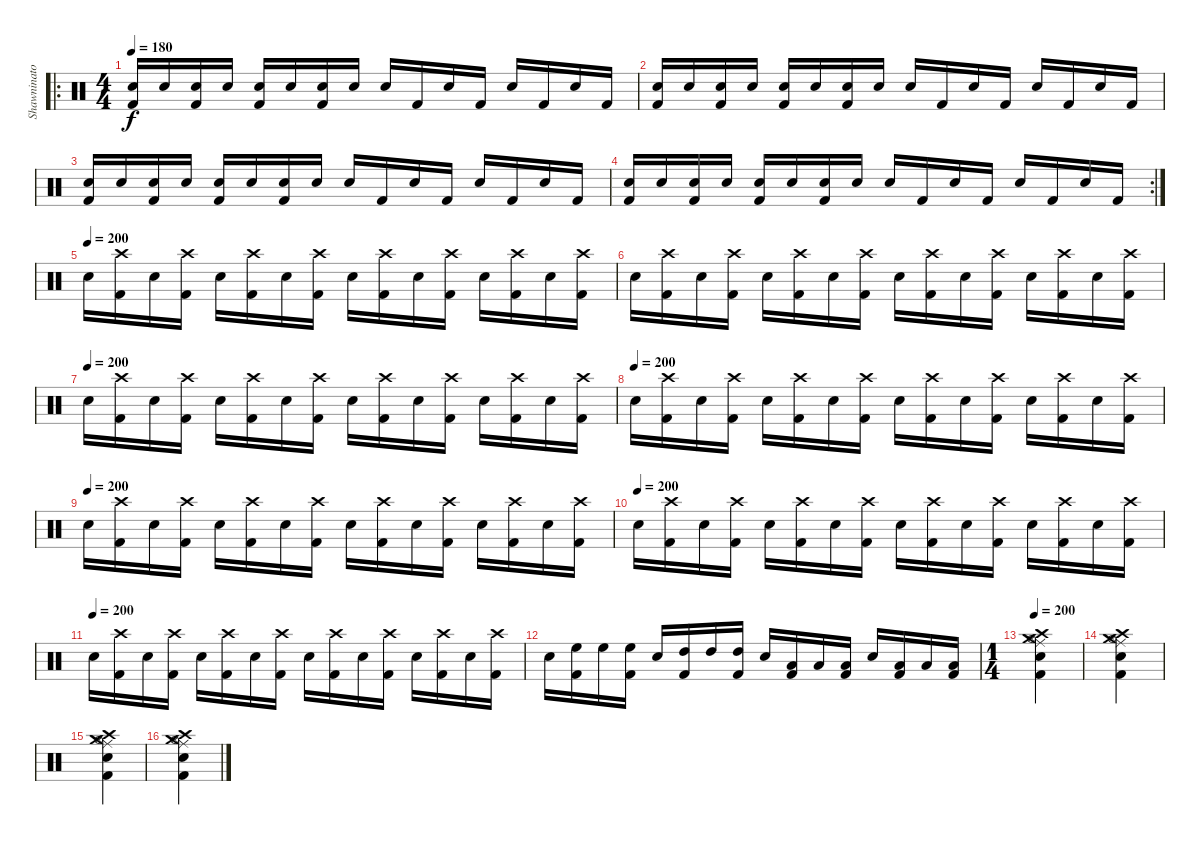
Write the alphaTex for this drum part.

\track ("Shawninator-Drums" "Shawninato") {instrument percussion}
\staff {score}
\articulation defaults
\ro
\ts (4 4)
\tempo 180
\clef neutral
\ks c
("Kick (hit) 2" "Snare (hit) 2").16{dy f} "Snare (hit) 2".16 ("Kick (hit) 2" "Snare (hit) 2").16 "Snare (hit) 2".16 ("Kick (hit) 2" "Snare (hit) 2").16 "Snare (hit) 2".16 ("Kick (hit) 2" "Snare (hit) 2").16 "Snare (hit) 2".16 "Snare (hit) 2".16 "Kick (hit) 2".16 "Snare (hit) 2".16 "Kick (hit) 2".16 "Snare (hit) 2".16 "Kick (hit) 2".16 "Snare (hit) 2".16 "Kick (hit) 2".16 |
("Kick (hit) 2" "Snare (hit) 2").16 "Snare (hit) 2".16 ("Kick (hit) 2" "Snare (hit) 2").16 "Snare (hit) 2".16 ("Kick (hit) 2" "Snare (hit) 2").16 "Snare (hit) 2".16 ("Kick (hit) 2" "Snare (hit) 2").16 "Snare (hit) 2".16 "Snare (hit) 2".16 "Kick (hit) 2".16 "Snare (hit) 2".16 "Kick (hit) 2".16 "Snare (hit) 2".16 "Kick (hit) 2".16 "Snare (hit) 2".16 "Kick (hit) 2".16 |
("Kick (hit) 2" "Snare (hit) 2").16 "Snare (hit) 2".16 ("Kick (hit) 2" "Snare (hit) 2").16 "Snare (hit) 2".16 ("Kick (hit) 2" "Snare (hit) 2").16 "Snare (hit) 2".16 ("Kick (hit) 2" "Snare (hit) 2").16 "Snare (hit) 2".16 "Snare (hit) 2".16 "Kick (hit) 2".16 "Snare (hit) 2".16 "Kick (hit) 2".16 "Snare (hit) 2".16 "Kick (hit) 2".16 "Snare (hit) 2".16 "Kick (hit) 2".16 |
\rc 2
("Kick (hit) 2" "Snare (hit) 2").16 "Snare (hit) 2".16 ("Kick (hit) 2" "Snare (hit) 2").16 "Snare (hit) 2".16 ("Kick (hit) 2" "Snare (hit) 2").16 "Snare (hit) 2".16 ("Kick (hit) 2" "Snare (hit) 2").16 "Snare (hit) 2".16 "Snare (hit) 2".16 "Kick (hit) 2".16 "Snare (hit) 2".16 "Kick (hit) 2".16 "Snare (hit) 2".16 "Kick (hit) 2".16 "Snare (hit) 2".16 "Kick (hit) 2".16 |
\tempo (200)
"Snare (hit) 2".16 ("Crash high (hit)" "Kick (hit) 2").16 "Snare (hit) 2".16 ("Crash high (hit)" "Kick (hit) 2").16 "Snare (hit) 2".16 ("Crash high (hit)" "Kick (hit) 2").16 "Snare (hit) 2".16 ("Crash high (hit)" "Kick (hit) 2").16 "Snare (hit) 2".16 ("Crash high (hit)" "Kick (hit) 2").16 "Snare (hit) 2".16 ("Crash high (hit)" "Kick (hit) 2").16 "Snare (hit) 2".16 ("Crash high (hit)" "Kick (hit) 2").16 "Snare (hit) 2".16 ("Crash high (hit)" "Kick (hit) 2").16 |
"Snare (hit) 2".16 ("Crash high (hit)" "Kick (hit) 2").16 "Snare (hit) 2".16 ("Crash high (hit)" "Kick (hit) 2").16 "Snare (hit) 2".16 ("Crash high (hit)" "Kick (hit) 2").16 "Snare (hit) 2".16 ("Crash high (hit)" "Kick (hit) 2").16 "Snare (hit) 2".16 ("Crash high (hit)" "Kick (hit) 2").16 "Snare (hit) 2".16 ("Crash high (hit)" "Kick (hit) 2").16 "Snare (hit) 2".16 ("Crash high (hit)" "Kick (hit) 2").16 "Snare (hit) 2".16 ("Crash high (hit)" "Kick (hit) 2").16 |
\tempo (200)
"Snare (hit) 2".16 ("Crash high (hit)" "Kick (hit) 2").16 "Snare (hit) 2".16 ("Crash high (hit)" "Kick (hit) 2").16 "Snare (hit) 2".16 ("Crash high (hit)" "Kick (hit) 2").16 "Snare (hit) 2".16 ("Crash high (hit)" "Kick (hit) 2").16 "Snare (hit) 2".16 ("Crash high (hit)" "Kick (hit) 2").16 "Snare (hit) 2".16 ("Crash high (hit)" "Kick (hit) 2").16 "Snare (hit) 2".16 ("Crash high (hit)" "Kick (hit) 2").16 "Snare (hit) 2".16 ("Crash high (hit)" "Kick (hit) 2").16 |
\tempo (200)
"Snare (hit) 2".16 ("Crash high (hit)" "Kick (hit) 2").16 "Snare (hit) 2".16 ("Crash high (hit)" "Kick (hit) 2").16 "Snare (hit) 2".16 ("Crash high (hit)" "Kick (hit) 2").16 "Snare (hit) 2".16 ("Crash high (hit)" "Kick (hit) 2").16 "Snare (hit) 2".16 ("Crash high (hit)" "Kick (hit) 2").16 "Snare (hit) 2".16 ("Crash high (hit)" "Kick (hit) 2").16 "Snare (hit) 2".16 ("Crash high (hit)" "Kick (hit) 2").16 "Snare (hit) 2".16 ("Crash high (hit)" "Kick (hit) 2").16 |
\tempo (200)
"Snare (hit) 2".16 ("Crash high (hit)" "Kick (hit) 2").16 "Snare (hit) 2".16 ("Crash high (hit)" "Kick (hit) 2").16 "Snare (hit) 2".16 ("Crash high (hit)" "Kick (hit) 2").16 "Snare (hit) 2".16 ("Crash high (hit)" "Kick (hit) 2").16 "Snare (hit) 2".16 ("Crash high (hit)" "Kick (hit) 2").16 "Snare (hit) 2".16 ("Crash high (hit)" "Kick (hit) 2").16 "Snare (hit) 2".16 ("Crash high (hit)" "Kick (hit) 2").16 "Snare (hit) 2".16 ("Crash high (hit)" "Kick (hit) 2").16 |
\tempo (200)
"Snare (hit) 2".16 ("Crash high (hit)" "Kick (hit) 2").16 "Snare (hit) 2".16 ("Crash high (hit)" "Kick (hit) 2").16 "Snare (hit) 2".16 ("Crash high (hit)" "Kick (hit) 2").16 "Snare (hit) 2".16 ("Crash high (hit)" "Kick (hit) 2").16 "Snare (hit) 2".16 ("Crash high (hit)" "Kick (hit) 2").16 "Snare (hit) 2".16 ("Crash high (hit)" "Kick (hit) 2").16 "Snare (hit) 2".16 ("Crash high (hit)" "Kick (hit) 2").16 "Snare (hit) 2".16 ("Crash high (hit)" "Kick (hit) 2").16 |
\tempo (200)
"Snare (hit) 2".16 ("Crash high (hit)" "Kick (hit) 2").16 "Snare (hit) 2".16 ("Crash high (hit)" "Kick (hit) 2").16 "Snare (hit) 2".16 ("Crash high (hit)" "Kick (hit) 2").16 "Snare (hit) 2".16 ("Crash high (hit)" "Kick (hit) 2").16 "Snare (hit) 2".16 ("Crash high (hit)" "Kick (hit) 2").16 "Snare (hit) 2".16 ("Crash high (hit)" "Kick (hit) 2").16 "Snare (hit) 2".16 ("Crash high (hit)" "Kick (hit) 2").16 "Snare (hit) 2".16 ("Crash high (hit)" "Kick (hit) 2").16 |
"Snare (hit) 2".16 ("High Floor Tom (hit)" "Kick (hit) 2").16 "High Floor Tom (hit)".16 ("High Floor Tom (hit)" "Kick (hit) 2").16 "Snare (hit) 2".16 ("High Tom (hit)" "Kick (hit) 2").16 "High Tom (hit)".16 ("High Tom (hit)" "Kick (hit) 2").16 "Snare (hit) 2".16 ("Low Tom (hit)" "Kick (hit) 2").16 "Low Tom (hit)".16 ("Low Tom (hit)" "Kick (hit) 2").16 "Snare (hit) 2".16 ("Low Floor Tom (hit)" "Kick (hit) 2").16 "Low Floor Tom (hit)".16 ("Low Floor Tom (hit)" "Kick (hit) 2").16 |
\ts (1 4)
\tempo 200
("Hi-Hat (open)" "Crash medium (hit)" "Crash high (hit)" "Ride (middle)" "Kick (hit) 2" "Snare (hit) 2").4 |
("Hi-Hat (open)" "Crash medium (hit)" "Crash high (hit)" "Ride (middle)" "Kick (hit) 2" "Snare (hit) 2").4 |
("Hi-Hat (open)" "Crash medium (hit)" "Crash high (hit)" "Ride (middle)" "Kick (hit) 2" "Snare (hit) 2").4 |
("Hi-Hat (open)" "Crash medium (hit)" "Crash high (hit)" "Ride (middle)" "Kick (hit) 2" "Snare (hit) 2").4
